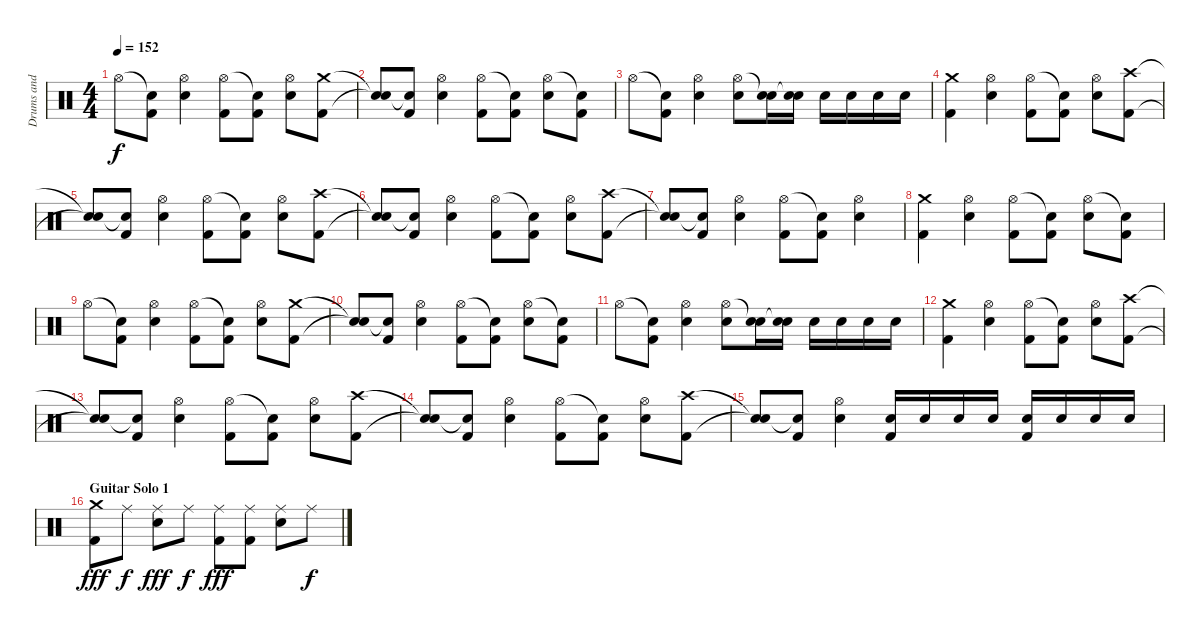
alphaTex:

\track ("Drums and Percussion" "Drums and ") {instrument percussion}
\staff {score}
\articulation defaults
\ts (4 4)
\tempo 152
\clef neutral
\ks c "Hi-Hat (open)".8{dy f}
("Snare (hit)"{t} "Kick (hit) 2").8 ("Hi-Hat (open)" "Snare (hit) 2").4 ("Hi-Hat (open)" "Kick (hit) 2").8 ("Snare (hit)"{t} "Kick (hit) 2").8 ("Hi-Hat (open)" "Snare (hit) 2").8 ("Crash medium (hit)" "Kick (hit) 2").8 |
("Snare (hit)"{t} "Snare (hit)"{t}).8 ("Snare (hit)"{t} "Kick (hit) 2").8 ("Hi-Hat (open)" "Snare (hit) 2").4 ("Hi-Hat (open)" "Kick (hit) 2").8 ("Snare (hit)"{t} "Kick (hit) 2").8 ("Hi-Hat (open)" "Snare (hit) 2").8 ("Snare (hit)"{t} "Kick (hit) 2").8 |
"Hi-Hat (open)".8 ("Snare (hit)"{t} "Kick (hit) 2").8 ("Hi-Hat (open)" "Snare (hit) 2").4 ("Hi-Hat (open)" "Snare (hit) 2").8 ("Snare (hit)"{t} "Snare (hit) 2").16 ("Snare (hit)"{t} "Snare (hit) 2").16 "Snare (hit) 2".16 "Snare (hit) 2".16 "Snare (hit) 2".16 "Snare (hit) 2".16 |
("Crash medium (hit)" "Kick (hit) 2").4 ("Hi-Hat (open)" "Snare (hit) 2").4 ("Hi-Hat (open)" "Kick (hit) 2").8 ("Snare (hit)"{t} "Kick (hit) 2").8 ("Hi-Hat (open)" "Snare (hit) 2").8 ("Crash high (hit)" "Kick (hit) 2").8 |
("Snare (hit)"{t} "Snare (hit)"{t}).8 ("Snare (hit)"{t} "Kick (hit) 2").8 ("Hi-Hat (open)" "Snare (hit) 2").4 ("Hi-Hat (open)" "Kick (hit) 2").8 ("Snare (hit)"{t} "Kick (hit) 2").8 ("Hi-Hat (open)" "Snare (hit) 2").8 ("Crash high (hit)" "Kick (hit) 2").8 |
("Snare (hit)"{t} "Snare (hit)"{t}).8 ("Snare (hit)"{t} "Kick (hit) 2").8 ("Hi-Hat (open)" "Snare (hit) 2").4 ("Hi-Hat (open)" "Kick (hit) 2").8 ("Snare (hit)"{t} "Kick (hit) 2").8 ("Hi-Hat (open)" "Snare (hit) 2").8 ("Crash high (hit)" "Kick (hit) 2").8 |
("Snare (hit)"{t} "Snare (hit)"{t}).8 ("Snare (hit)"{t} "Kick (hit) 2").8 ("Hi-Hat (open)" "Snare (hit) 2").4 ("Hi-Hat (open)" "Kick (hit) 2").8 ("Snare (hit)"{t} "Kick (hit) 2").8 ("Hi-Hat (open)" "Snare (hit) 2").4 |
("Crash medium (hit)" "Kick (hit) 2").4 ("Hi-Hat (open)" "Snare (hit) 2").4 ("Hi-Hat (open)" "Kick (hit) 2").8 ("Snare (hit)"{t} "Kick (hit) 2").8 ("Hi-Hat (open)" "Snare (hit) 2").8 ("Snare (hit)"{t} "Kick (hit) 2").8 |
"Hi-Hat (open)".8 ("Snare (hit)"{t} "Kick (hit) 2").8 ("Hi-Hat (open)" "Snare (hit) 2").4 ("Hi-Hat (open)" "Kick (hit) 2").8 ("Snare (hit)"{t} "Kick (hit) 2").8 ("Hi-Hat (open)" "Snare (hit) 2").8 ("Crash medium (hit)" "Kick (hit) 2").8 |
("Snare (hit)"{t} "Snare (hit)"{t}).8 ("Snare (hit)"{t} "Kick (hit) 2").8 ("Hi-Hat (open)" "Snare (hit) 2").4 ("Hi-Hat (open)" "Kick (hit) 2").8 ("Snare (hit)"{t} "Kick (hit) 2").8 ("Hi-Hat (open)" "Snare (hit) 2").8 ("Snare (hit)"{t} "Kick (hit) 2").8 |
"Hi-Hat (open)".8 ("Snare (hit)"{t} "Kick (hit) 2").8 ("Hi-Hat (open)" "Snare (hit) 2").4 ("Hi-Hat (open)" "Snare (hit) 2").8 ("Snare (hit)"{t} "Snare (hit) 2").16 ("Snare (hit)"{t} "Snare (hit) 2").16 "Snare (hit) 2".16 "Snare (hit) 2".16 "Snare (hit) 2".16 "Snare (hit) 2".16 |
("Crash medium (hit)" "Kick (hit) 2").4 ("Hi-Hat (open)" "Snare (hit) 2").4 ("Hi-Hat (open)" "Kick (hit) 2").8 ("Snare (hit)"{t} "Kick (hit) 2").8 ("Hi-Hat (open)" "Snare (hit) 2").8 ("Crash high (hit)" "Kick (hit) 2").8 |
("Snare (hit)"{t} "Snare (hit)"{t}).8 ("Snare (hit)"{t} "Kick (hit) 2").8 ("Hi-Hat (open)" "Snare (hit) 2").4 ("Hi-Hat (open)" "Kick (hit) 2").8 ("Snare (hit)"{t} "Kick (hit) 2").8 ("Hi-Hat (open)" "Snare (hit) 2").8 ("Crash high (hit)" "Kick (hit) 2").8 |
("Snare (hit)"{t} "Snare (hit)"{t}).8 ("Snare (hit)"{t} "Kick (hit) 2").8 ("Hi-Hat (open)" "Snare (hit) 2").4 ("Hi-Hat (open)" "Kick (hit) 2").8 ("Snare (hit)"{t} "Kick (hit) 2").8 ("Hi-Hat (open)" "Snare (hit) 2").8 ("Crash high (hit)" "Kick (hit) 2").8 |
("Snare (hit)"{t} "Snare (hit)"{t}).8 ("Snare (hit)"{t} "Kick (hit) 2").8 ("Hi-Hat (open)" "Snare (hit) 2").4 ("Snare (hit) 2" "Kick (hit) 2").16 "Snare (hit) 2".16 "Snare (hit) 2".16 "Snare (hit) 2".16 ("Snare (hit) 2" "Kick (hit) 2").16 "Snare (hit) 2".16 "Snare (hit) 2".16 "Snare (hit) 2".16 |
\section ("" "Guitar Solo 1")
("Crash medium (hit)" "Kick (hit) 2").8{dy fff} "Ride (middle)".8{dy f} ("Ride (middle)" "Snare (hit) 2").8{dy fff} "Ride (middle)".8{dy f} ("Ride (middle)" "Kick (hit) 2").8{dy fff} ("Ride (middle)" "Kick (hit) 2").8 ("Ride (middle)" "Snare (hit) 2").8 "Ride (middle)".8{dy f}
